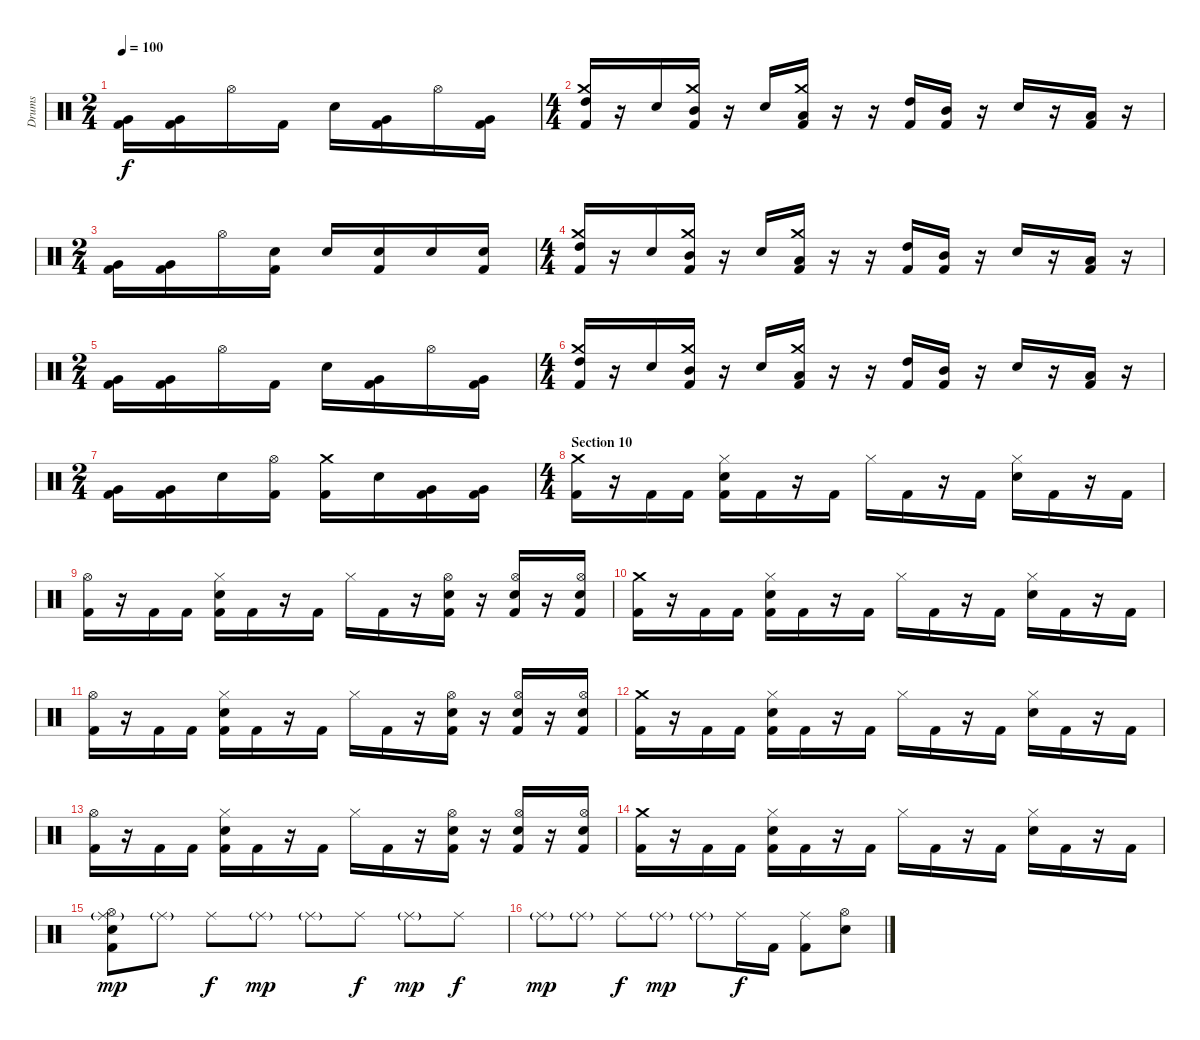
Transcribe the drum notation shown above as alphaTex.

\track ("Drums" "Drums") {instrument percussion}
\staff {score}
\articulation defaults
\ts (2 4)
\tempo 100
\clef neutral
\ks c
("Very Low Tom (hit)" "Kick (hit) 2").16{dy f} ("Very Low Tom (hit)" "Kick (hit) 2").16 "Hi-Hat (open)".16 "Kick (hit) 2".16 "Snare (hit) 2".16 ("Very Low Tom (hit)" "Kick (hit) 2").16 "Hi-Hat (open)".16 ("Very Low Tom (hit)" "Kick (hit) 2").16 |
\ts (4 4)
("Crash medium (hit)" "High Tom (hit)" "Kick (hit) 2").16 r.16 "Snare (hit) 2".16 ("Crash medium (hit)" "Mid Tom (hit)" "Kick (hit) 2").16 r.16 "Snare (hit) 2".16 ("Crash medium (hit)" "Low Tom (hit)" "Kick (hit) 2").16 r.16 r.16 ("High Tom (hit)" "Kick (hit) 2").16 ("Mid Tom (hit)" "Kick (hit) 2").16 r.16 "Snare (hit) 2".16 r.16 ("Low Tom (hit)" "Kick (hit) 2").16 r.16 |
\ts (2 4)
("Very Low Tom (hit)" "Kick (hit) 2").16 ("Very Low Tom (hit)" "Kick (hit) 2").16 "Hi-Hat (open)".16 ("Snare (hit) 2" "Kick (hit) 2").16 "Snare (hit) 2".16 ("Snare (hit) 2" "Kick (hit) 2").16 "Snare (hit) 2".16 ("Snare (hit) 2" "Kick (hit) 2").16 |
\ts (4 4)
("Crash medium (hit)" "High Tom (hit)" "Kick (hit) 2").16 r.16 "Snare (hit) 2".16 ("Crash medium (hit)" "Mid Tom (hit)" "Kick (hit) 2").16 r.16 "Snare (hit) 2".16 ("Crash medium (hit)" "Low Tom (hit)" "Kick (hit) 2").16 r.16 r.16 ("High Tom (hit)" "Kick (hit) 2").16 ("Mid Tom (hit)" "Kick (hit) 2").16 r.16 "Snare (hit) 2".16 r.16 ("Low Tom (hit)" "Kick (hit) 2").16 r.16 |
\ts (2 4)
("Very Low Tom (hit)" "Kick (hit) 2").16 ("Very Low Tom (hit)" "Kick (hit) 2").16 "Hi-Hat (open)".16 "Kick (hit) 2".16 "Snare (hit) 2".16 ("Very Low Tom (hit)" "Kick (hit) 2").16 "Hi-Hat (open)".16 ("Very Low Tom (hit)" "Kick (hit) 2").16 |
\ts (4 4)
("Crash medium (hit)" "High Tom (hit)" "Kick (hit) 2").16 r.16 "Snare (hit) 2".16 ("Crash medium (hit)" "Mid Tom (hit)" "Kick (hit) 2").16 r.16 "Snare (hit) 2".16 ("Crash medium (hit)" "Low Tom (hit)" "Kick (hit) 2").16 r.16 r.16 ("High Tom (hit)" "Kick (hit) 2").16 ("Mid Tom (hit)" "Kick (hit) 2").16 r.16 "Snare (hit) 2".16 r.16 ("Low Tom (hit)" "Kick (hit) 2").16 r.16 |
\ts (2 4)
("Very Low Tom (hit)" "Kick (hit) 2").16 ("Very Low Tom (hit)" "Kick (hit) 2").16 "Snare (hit) 2".16 ("Hi-Hat (open)" "Kick (hit) 2").16 ("Crash medium (hit)" "Kick (hit) 2").16 "Snare (hit) 2".16 ("Very Low Tom (hit)" "Kick (hit) 2").16 ("Very Low Tom (hit)" "Kick (hit) 2").16 |
\ts (4 4)
\section ("" "Section 10")
("Crash medium (hit)" "Kick (hit) 2").16 r.16 "Kick (hit) 2".16 "Kick (hit) 2".16 ("Hi-Hat (closed)" "Snare (hit) 2" "Kick (hit) 2").16 "Kick (hit) 2".16 r.16 "Kick (hit) 2".16 "Hi-Hat (closed)".16 "Kick (hit) 2".16 r.16 "Kick (hit) 2".16 ("Hi-Hat (closed)" "Snare (hit) 2").16 "Kick (hit) 2".16 r.16 "Kick (hit) 2".16 |
("Hi-Hat (open)" "Kick (hit) 2").16 r.16 "Kick (hit) 2".16 "Kick (hit) 2".16 ("Hi-Hat (closed)" "Snare (hit) 2" "Kick (hit) 2").16 "Kick (hit) 2".16 r.16 "Kick (hit) 2".16 "Hi-Hat (closed)".16 "Kick (hit) 2".16 r.16 ("Hi-Hat (open)" "Snare (hit) 2" "Kick (hit) 2").16 r.16 ("Hi-Hat (open)" "Snare (hit) 2" "Kick (hit) 2").16 r.16 ("Hi-Hat (open)" "Snare (hit) 2" "Kick (hit) 2").16 |
("Crash medium (hit)" "Kick (hit) 2").16 r.16 "Kick (hit) 2".16 "Kick (hit) 2".16 ("Hi-Hat (closed)" "Snare (hit) 2" "Kick (hit) 2").16 "Kick (hit) 2".16 r.16 "Kick (hit) 2".16 "Hi-Hat (closed)".16 "Kick (hit) 2".16 r.16 "Kick (hit) 2".16 ("Hi-Hat (closed)" "Snare (hit) 2").16 "Kick (hit) 2".16 r.16 "Kick (hit) 2".16 |
("Hi-Hat (open)" "Kick (hit) 2").16 r.16 "Kick (hit) 2".16 "Kick (hit) 2".16 ("Hi-Hat (closed)" "Snare (hit) 2" "Kick (hit) 2").16 "Kick (hit) 2".16 r.16 "Kick (hit) 2".16 "Hi-Hat (closed)".16 "Kick (hit) 2".16 r.16 ("Hi-Hat (open)" "Snare (hit) 2" "Kick (hit) 2").16 r.16 ("Hi-Hat (open)" "Snare (hit) 2" "Kick (hit) 2").16 r.16 ("Hi-Hat (open)" "Snare (hit) 2" "Kick (hit) 2").16 |
("Crash medium (hit)" "Kick (hit) 2").16 r.16 "Kick (hit) 2".16 "Kick (hit) 2".16 ("Hi-Hat (closed)" "Snare (hit) 2" "Kick (hit) 2").16 "Kick (hit) 2".16 r.16 "Kick (hit) 2".16 "Hi-Hat (closed)".16 "Kick (hit) 2".16 r.16 "Kick (hit) 2".16 ("Hi-Hat (closed)" "Snare (hit) 2").16 "Kick (hit) 2".16 r.16 "Kick (hit) 2".16 |
("Hi-Hat (open)" "Kick (hit) 2").16 r.16 "Kick (hit) 2".16 "Kick (hit) 2".16 ("Hi-Hat (closed)" "Snare (hit) 2" "Kick (hit) 2").16 "Kick (hit) 2".16 r.16 "Kick (hit) 2".16 "Hi-Hat (closed)".16 "Kick (hit) 2".16 r.16 ("Hi-Hat (open)" "Snare (hit) 2" "Kick (hit) 2").16 r.16 ("Hi-Hat (open)" "Snare (hit) 2" "Kick (hit) 2").16 r.16 ("Hi-Hat (open)" "Snare (hit) 2" "Kick (hit) 2").16 |
("Crash medium (hit)" "Kick (hit) 2").16 r.16 "Kick (hit) 2".16 "Kick (hit) 2".16 ("Hi-Hat (closed)" "Snare (hit) 2" "Kick (hit) 2").16 "Kick (hit) 2".16 r.16 "Kick (hit) 2".16 "Hi-Hat (closed)".16 "Kick (hit) 2".16 r.16 "Kick (hit) 2".16 ("Hi-Hat (closed)" "Snare (hit) 2").16 "Kick (hit) 2".16 r.16 "Kick (hit) 2".16 |
("Ride (middle)"{g} "Hi-Hat (open)" "Snare (hit) 2" "Kick (hit) 2").8{dy mp} "Ride (middle)"{g}.8 "Ride (middle)".8{dy f} "Ride (middle)"{g}.8{dy mp} "Ride (middle)"{g}.8 "Ride (middle)".8{dy f} "Ride (middle)"{g}.8{dy mp} "Ride (middle)".8{dy f} |
"Ride (middle)"{g}.8{dy mp} "Ride (middle)"{g}.8 "Ride (middle)".8{dy f} "Ride (middle)"{g}.8{dy mp} "Ride (middle)"{g}.8 "Ride (middle)".16{dy f} "Kick (hit) 2".16 ("Ride (middle)" "Kick (hit) 2").8 ("Hi-Hat (open)" "Snare (hit) 2").8
